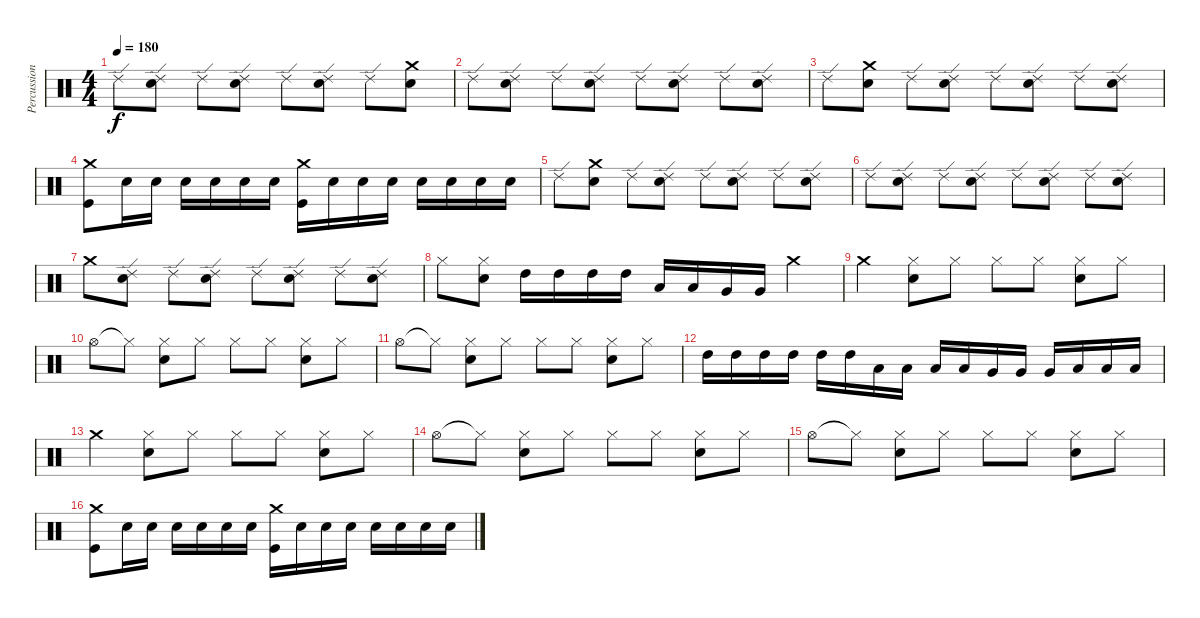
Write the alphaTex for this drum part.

\track ("Percussion" "Percussion") {instrument percussion}
\staff {score}
\articulation defaults
\ts (4 4)
\tempo 180
\clef neutral
\ks c "Ride (edge) 2".8{dy f}
("Snare (hit) 2" "Ride (edge) 2").8 "Ride (edge) 2".8 ("Snare (hit) 2" "Ride (edge) 2").8 "Ride (edge) 2".8 ("Snare (hit) 2" "Ride (edge) 2").8 "Ride (edge) 2".8 ("Snare (hit) 2" "Crash medium (hit)").8 |
"Ride (edge) 2".8 ("Snare (hit) 2" "Ride (edge) 2").8 "Ride (edge) 2".8 ("Snare (hit) 2" "Ride (edge) 2").8 "Ride (edge) 2".8 ("Snare (hit) 2" "Ride (edge) 2").8 "Ride (edge) 2".8 ("Snare (hit) 2" "Ride (edge) 2").8 |
"Ride (edge) 2".8 ("Snare (hit) 2" "Crash medium (hit)").8 "Ride (edge) 2".8 ("Snare (hit) 2" "Ride (edge) 2").8 "Ride (edge) 2".8 ("Snare (hit) 2" "Ride (edge) 2").8 "Ride (edge) 2".8 ("Snare (hit) 2" "Ride (edge) 2").8 |
("Crash medium (hit)" "Kick (hit)").8 "Electric Snare (hit)".16 "Electric Snare (hit)".16 "Electric Snare (hit)".16 "Electric Snare (hit)".16 "Electric Snare (hit)".16 "Electric Snare (hit)".16 ("Crash medium (hit)" "Kick (hit)").16 "Electric Snare (hit)".16 "Electric Snare (hit)".16 "Electric Snare (hit)".16 "Electric Snare (hit)".16 "Electric Snare (hit)".16 "Electric Snare (hit)".16 "Electric Snare (hit)".16 |
"Ride (edge) 2".8 ("Snare (hit) 2" "Crash medium (hit)").8 "Ride (edge) 2".8 ("Snare (hit) 2" "Ride (edge) 2").8 "Ride (edge) 2".8 ("Snare (hit) 2" "Ride (edge) 2").8 "Ride (edge) 2".8 ("Snare (hit) 2" "Ride (edge) 2").8 |
"Ride (edge) 2".8 ("Snare (hit) 2" "Ride (edge) 2").8 "Ride (edge) 2".8 ("Snare (hit) 2" "Ride (edge) 2").8 "Ride (edge) 2".8 ("Snare (hit) 2" "Ride (edge) 2").8 "Ride (edge) 2".8 ("Snare (hit) 2" "Ride (edge) 2").8 |
"Crash medium (hit)".8 ("Snare (hit) 2" "Ride (edge) 2").8 "Ride (edge) 2".8 ("Snare (hit) 2" "Ride (edge) 2").8 "Ride (edge) 2".8 ("Snare (hit) 2" "Ride (edge) 2").8 "Ride (edge) 2".8 ("Snare (hit) 2" "Ride (edge) 2").8 |
"Hi-Hat (closed)".8 ("Snare (hit) 2" "Hi-Hat (closed)").8 "High Tom (hit)".16 "High Tom (hit)".16 "High Tom (hit)".16 "High Tom (hit)".16 "Low Tom (hit)".16 "Low Tom (hit)".16 "Very Low Tom (hit)".16 "Very Low Tom (hit)".16 "Crash medium (hit)".4 |
"Crash medium (hit)".4 ("Snare (hit) 2" "Hi-Hat (closed)").8 "Hi-Hat (closed)".8 "Hi-Hat (closed)".8 "Hi-Hat (closed)".8 ("Snare (hit) 2" "Hi-Hat (closed)").8 "Hi-Hat (closed)".8 |
"Hi-Hat (open)".8 "Hi-Hat (closed)"{t}.8 ("Snare (hit) 2" "Hi-Hat (closed)").8 "Hi-Hat (closed)".8 "Hi-Hat (closed)".8 "Hi-Hat (closed)".8 ("Snare (hit) 2" "Hi-Hat (closed)").8 "Hi-Hat (closed)".8 |
"Hi-Hat (open)".8 "Hi-Hat (closed)"{t}.8 ("Snare (hit) 2" "Hi-Hat (closed)").8 "Hi-Hat (closed)".8 "Hi-Hat (closed)".8 "Hi-Hat (closed)".8 ("Snare (hit) 2" "Hi-Hat (closed)").8 "Hi-Hat (closed)".8 |
"High Tom (hit)".16 "High Tom (hit)".16 "High Tom (hit)".16 "High Tom (hit)".16 "High Tom (hit)".16 "High Tom (hit)".16 "Low Tom (hit)".16 "Low Tom (hit)".16 "Low Tom (hit)".16 "Low Tom (hit)".16 "Very Low Tom (hit)".16 "Very Low Tom (hit)".16 "Very Low Tom (hit)".16 "Low Floor Tom (hit)".16 "Low Floor Tom (hit)".16 "Low Floor Tom (hit)".16 |
"Crash medium (hit)".4 ("Snare (hit) 2" "Hi-Hat (closed)").8 "Hi-Hat (closed)".8 "Hi-Hat (closed)".8 "Hi-Hat (closed)".8 ("Snare (hit) 2" "Hi-Hat (closed)").8 "Hi-Hat (closed)".8 |
"Hi-Hat (open)".8 "Hi-Hat (closed)"{t}.8 ("Snare (hit) 2" "Hi-Hat (closed)").8 "Hi-Hat (closed)".8 "Hi-Hat (closed)".8 "Hi-Hat (closed)".8 ("Snare (hit) 2" "Hi-Hat (closed)").8 "Hi-Hat (closed)".8 |
"Hi-Hat (open)".8 "Hi-Hat (closed)"{t}.8 ("Snare (hit) 2" "Hi-Hat (closed)").8 "Hi-Hat (closed)".8 "Hi-Hat (closed)".8 "Hi-Hat (closed)".8 ("Snare (hit) 2" "Hi-Hat (closed)").8 "Hi-Hat (closed)".8 |
("Crash medium (hit)" "Kick (hit)").8 "Electric Snare (hit)".16 "Electric Snare (hit)".16 "Electric Snare (hit)".16 "Electric Snare (hit)".16 "Electric Snare (hit)".16 "Electric Snare (hit)".16 ("Crash medium (hit)" "Kick (hit)").16 "Electric Snare (hit)".16 "Electric Snare (hit)".16 "Electric Snare (hit)".16 "Electric Snare (hit)".16 "Electric Snare (hit)".16 "Electric Snare (hit)".16 "Electric Snare (hit)".16
